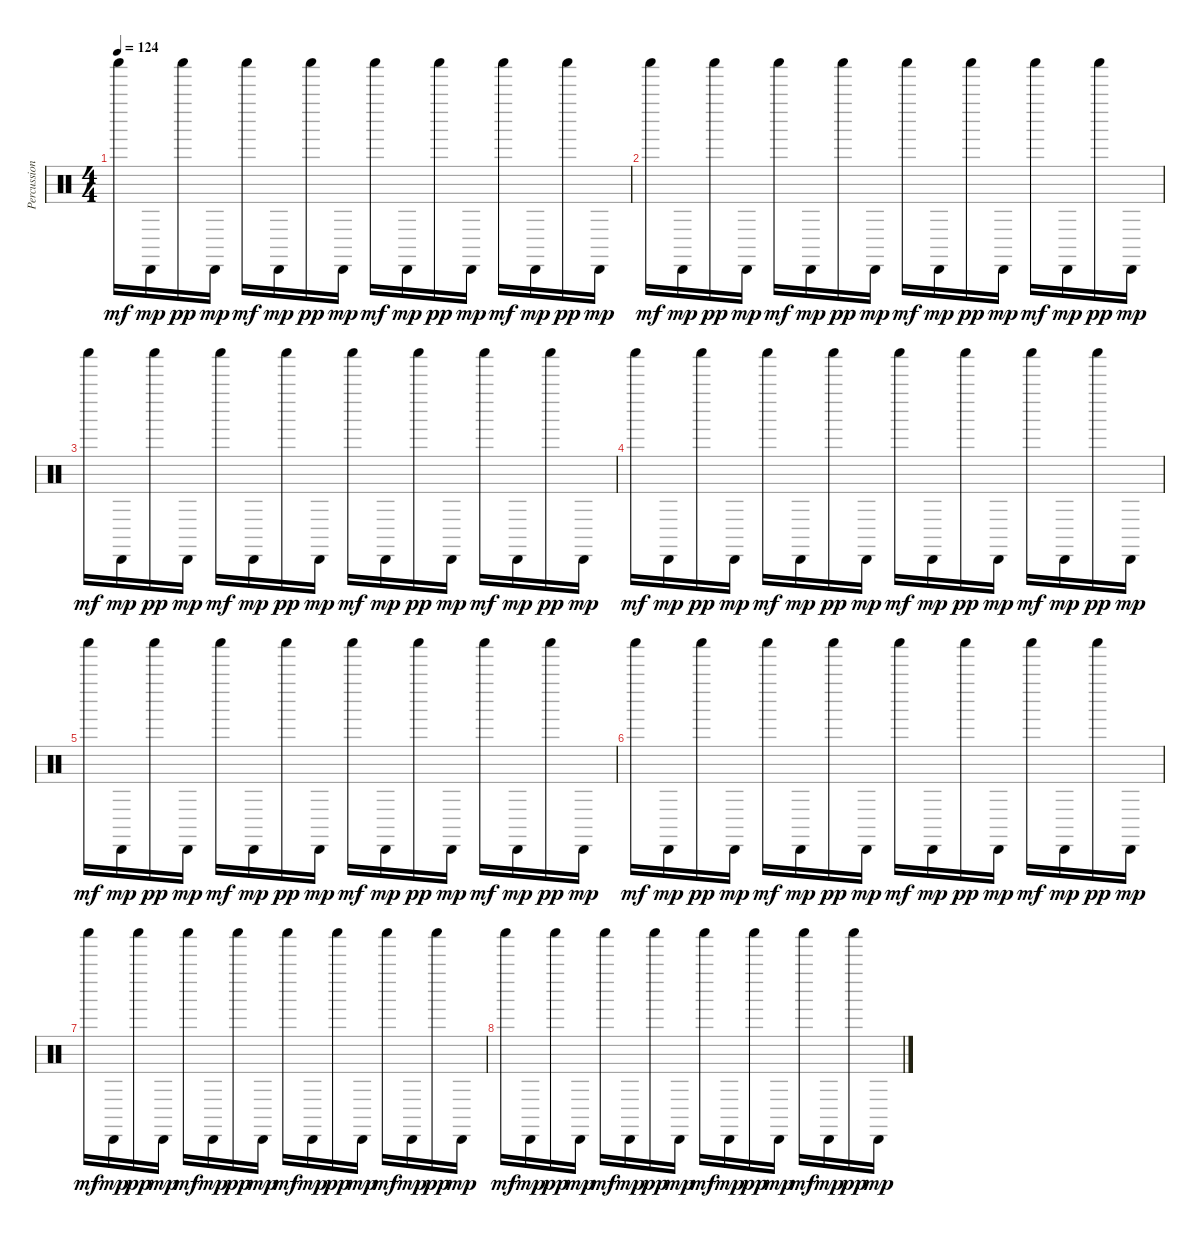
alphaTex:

\track ("Percussion" "Percussion") {instrument percussion}
\staff {score}
\articulation defaults
\ts (4 4)
\tempo 124
\clef neutral
\ks c "Shaker (hit)".16{dy mf} "Cabasa (hit)".16{dy mp} "Shaker (hit)".16{dy pp} "Cabasa (hit)".16{dy mp} "Shaker (hit)".16{dy mf} "Cabasa (hit)".16{dy mp} "Shaker (hit)".16{dy pp} "Cabasa (hit)".16{dy mp} "Shaker (hit)".16{dy mf} "Cabasa (hit)".16{dy mp} "Shaker (hit)".16{dy pp} "Cabasa (hit)".16{dy mp} "Shaker (hit)".16{dy mf} "Cabasa (hit)".16{dy mp} "Shaker (hit)".16{dy pp} "Cabasa (hit)".16{dy mp}
|
"Shaker (hit)".16{dy mf} "Cabasa (hit)".16{dy mp} "Shaker (hit)".16{dy pp} "Cabasa (hit)".16{dy mp} "Shaker (hit)".16{dy mf} "Cabasa (hit)".16{dy mp} "Shaker (hit)".16{dy pp} "Cabasa (hit)".16{dy mp} "Shaker (hit)".16{dy mf} "Cabasa (hit)".16{dy mp} "Shaker (hit)".16{dy pp} "Cabasa (hit)".16{dy mp} "Shaker (hit)".16{dy mf} "Cabasa (hit)".16{dy mp} "Shaker (hit)".16{dy pp} "Cabasa (hit)".16{dy mp} |
"Shaker (hit)".16{dy mf} "Cabasa (hit)".16{dy mp} "Shaker (hit)".16{dy pp} "Cabasa (hit)".16{dy mp} "Shaker (hit)".16{dy mf} "Cabasa (hit)".16{dy mp} "Shaker (hit)".16{dy pp} "Cabasa (hit)".16{dy mp} "Shaker (hit)".16{dy mf} "Cabasa (hit)".16{dy mp} "Shaker (hit)".16{dy pp} "Cabasa (hit)".16{dy mp} "Shaker (hit)".16{dy mf} "Cabasa (hit)".16{dy mp} "Shaker (hit)".16{dy pp} "Cabasa (hit)".16{dy mp} |
"Shaker (hit)".16{dy mf} "Cabasa (hit)".16{dy mp} "Shaker (hit)".16{dy pp} "Cabasa (hit)".16{dy mp} "Shaker (hit)".16{dy mf} "Cabasa (hit)".16{dy mp} "Shaker (hit)".16{dy pp} "Cabasa (hit)".16{dy mp} "Shaker (hit)".16{dy mf} "Cabasa (hit)".16{dy mp} "Shaker (hit)".16{dy pp} "Cabasa (hit)".16{dy mp} "Shaker (hit)".16{dy mf} "Cabasa (hit)".16{dy mp} "Shaker (hit)".16{dy pp} "Cabasa (hit)".16{dy mp} |
"Shaker (hit)".16{dy mf} "Cabasa (hit)".16{dy mp} "Shaker (hit)".16{dy pp} "Cabasa (hit)".16{dy mp} "Shaker (hit)".16{dy mf} "Cabasa (hit)".16{dy mp} "Shaker (hit)".16{dy pp} "Cabasa (hit)".16{dy mp} "Shaker (hit)".16{dy mf} "Cabasa (hit)".16{dy mp} "Shaker (hit)".16{dy pp} "Cabasa (hit)".16{dy mp} "Shaker (hit)".16{dy mf} "Cabasa (hit)".16{dy mp} "Shaker (hit)".16{dy pp} "Cabasa (hit)".16{dy mp} |
"Shaker (hit)".16{dy mf} "Cabasa (hit)".16{dy mp} "Shaker (hit)".16{dy pp} "Cabasa (hit)".16{dy mp} "Shaker (hit)".16{dy mf} "Cabasa (hit)".16{dy mp} "Shaker (hit)".16{dy pp} "Cabasa (hit)".16{dy mp} "Shaker (hit)".16{dy mf} "Cabasa (hit)".16{dy mp} "Shaker (hit)".16{dy pp} "Cabasa (hit)".16{dy mp} "Shaker (hit)".16{dy mf} "Cabasa (hit)".16{dy mp} "Shaker (hit)".16{dy pp} "Cabasa (hit)".16{dy mp} |
"Shaker (hit)".16{dy mf} "Cabasa (hit)".16{dy mp} "Shaker (hit)".16{dy pp} "Cabasa (hit)".16{dy mp} "Shaker (hit)".16{dy mf} "Cabasa (hit)".16{dy mp} "Shaker (hit)".16{dy pp} "Cabasa (hit)".16{dy mp} "Shaker (hit)".16{dy mf} "Cabasa (hit)".16{dy mp} "Shaker (hit)".16{dy pp} "Cabasa (hit)".16{dy mp} "Shaker (hit)".16{dy mf} "Cabasa (hit)".16{dy mp} "Shaker (hit)".16{dy pp} "Cabasa (hit)".16{dy mp} |
"Shaker (hit)".16{dy mf} "Cabasa (hit)".16{dy mp} "Shaker (hit)".16{dy pp} "Cabasa (hit)".16{dy mp} "Shaker (hit)".16{dy mf} "Cabasa (hit)".16{dy mp} "Shaker (hit)".16{dy pp} "Cabasa (hit)".16{dy mp} "Shaker (hit)".16{dy mf} "Cabasa (hit)".16{dy mp} "Shaker (hit)".16{dy pp} "Cabasa (hit)".16{dy mp} "Shaker (hit)".16{dy mf} "Cabasa (hit)".16{dy mp} "Shaker (hit)".16{dy pp} "Cabasa (hit)".16{dy mp}
